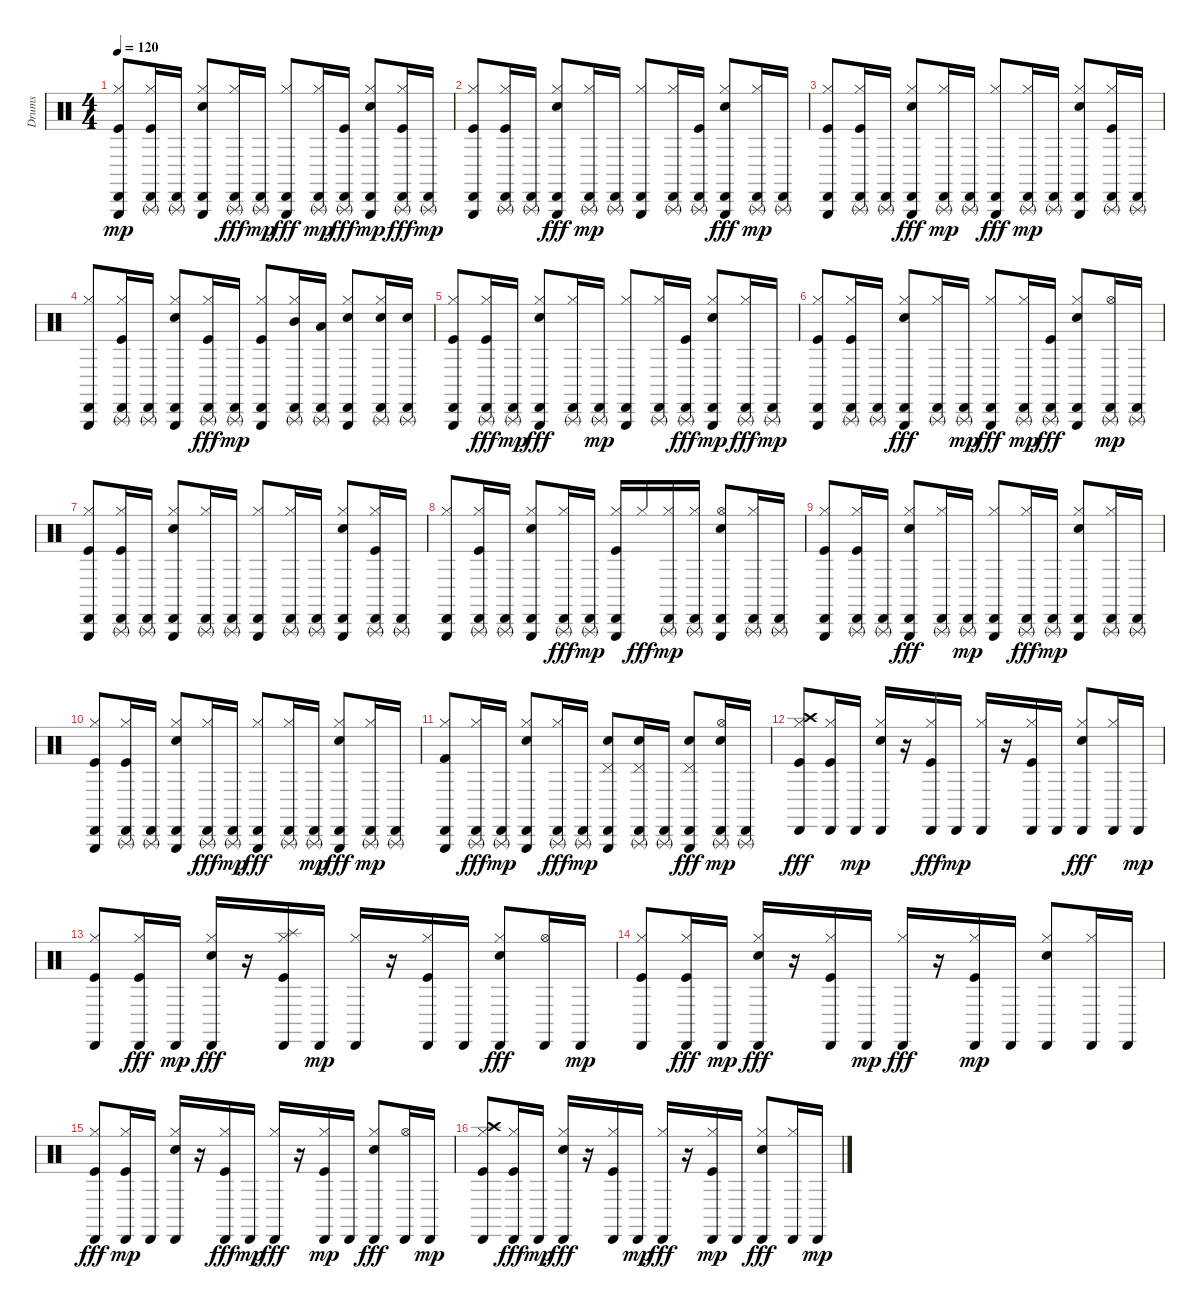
\track ("Drums" "Drums") {instrument percussion}
\staff {score}
\articulation defaults
\ts (4 4)
\tempo 120
\clef neutral
\ks c
("Kick (hit)" "Cabasa (hit)" "Hi-Hat (closed)" "Triangle (hit)").8{dy mp} ("Hi-Hat (closed)" "Kick (hit)" "Cabasa (hit)" "Triangle (rnute)").16 ("Cabasa (hit)" "Triangle (rnute)").16 ("Hi-Hat (closed)" "Snare (hit) 2" "Cabasa (hit)" "Triangle (hit)").8 ("Triangle (rnute)" "Cabasa (hit)" "Hi-Hat (closed)").16{dy fff} ("Cabasa (hit)" "Triangle (rnute)").16{dy mp} ("Triangle (hit)" "Cabasa (hit)" "Hi-Hat (closed)").8{dy fff} ("Hi-Hat (closed)" "Cabasa (hit)" "Triangle (rnute)").16{dy mp} ("Cabasa (hit)" "Triangle (rnute)" "Kick (hit)").16{dy fff} ("Hi-Hat (closed)" "Snare (hit) 2" "Triangle (hit)" "Cabasa (hit)").8{dy mp} ("Cabasa (hit)" "Kick (hit)" "Triangle (rnute)" "Hi-Hat (closed)").16{dy fff} ("Cabasa (hit)" "Triangle (rnute)").16{dy mp} |
("Cabasa (hit)" "Kick (hit)" "Hi-Hat (closed)" "Triangle (hit)").8 ("Hi-Hat (closed)" "Kick (hit)" "Cabasa (hit)" "Triangle (rnute)").16 ("Triangle (rnute)" "Cabasa (hit)").16 ("Cabasa (hit)" "Snare (hit) 2" "Triangle (hit)" "Hi-Hat (closed)").8{dy fff} ("Hi-Hat (closed)" "Cabasa (hit)" "Triangle (rnute)").16{dy mp} ("Triangle (rnute)" "Cabasa (hit)").16 ("Triangle (hit)" "Hi-Hat (closed)" "Cabasa (hit)").8 ("Hi-Hat (closed)" "Cabasa (hit)" "Triangle (rnute)").16 ("Kick (hit)" "Cabasa (hit)" "Triangle (rnute)").16 ("Snare (hit) 2" "Triangle (hit)" "Cabasa (hit)" "Hi-Hat (closed)").8{dy fff} ("Hi-Hat (closed)" "Triangle (rnute)" "Cabasa (hit)").16{dy mp} ("Cabasa (hit)" "Triangle (rnute)").16 |
("Cabasa (hit)" "Kick (hit)" "Hi-Hat (closed)" "Triangle (hit)").8 ("Hi-Hat (closed)" "Cabasa (hit)" "Kick (hit)" "Triangle (rnute)").16 ("Triangle (rnute)" "Cabasa (hit)").16 ("Snare (hit) 2" "Cabasa (hit)" "Triangle (hit)" "Hi-Hat (closed)").8{dy fff} ("Hi-Hat (closed)" "Cabasa (hit)" "Triangle (rnute)").16{dy mp} ("Triangle (rnute)" "Cabasa (hit)").16 ("Triangle (hit)" "Cabasa (hit)" "Hi-Hat (closed)").8{dy fff} ("Cabasa (hit)" "Hi-Hat (closed)" "Triangle (rnute)").16{dy mp} ("Triangle (rnute)" "Cabasa (hit)").16 ("Snare (hit) 2" "Hi-Hat (closed)" "Triangle (hit)" "Cabasa (hit)").8 ("Kick (hit)" "Hi-Hat (closed)" "Triangle (rnute)" "Cabasa (hit)").16 ("Cabasa (hit)" "Triangle (rnute)").16 |
("Hi-Hat (closed)" "Cabasa (hit)" "Triangle (hit)").8 ("Kick (hit)" "Cabasa (hit)" "Hi-Hat (closed)" "Triangle (rnute)").16 ("Cabasa (hit)" "Triangle (rnute)").16 ("Cabasa (hit)" "Hi-Hat (closed)" "Snare (hit) 2" "Triangle (hit)").8 ("Triangle (rnute)" "Cabasa (hit)" "Hi-Hat (closed)" "Kick (hit)").16{dy fff} ("Triangle (rnute)" "Cabasa (hit)").16{dy mp} ("Cabasa (hit)" "Hi-Hat (closed)" "Kick (hit)" "Triangle (hit)").8 ("Hi-Hat (closed)" "Mid Tom (hit)" "Cabasa (hit)" "Triangle (rnute)").16 ("Low Tom (hit)" "Triangle (rnute)" "Cabasa (hit)").16 ("Snare (hit) 2" "Hi-Hat (closed)" "Triangle (hit)" "Cabasa (hit)").8 ("Triangle (rnute)" "Hi-Hat (closed)" "Cabasa (hit)" "Snare (hit) 2").16 ("Cabasa (hit)" "Triangle (rnute)" "Snare (hit) 2").16 |
("Hi-Hat (closed)" "Kick (hit)" "Cabasa (hit)" "Triangle (hit)").8 ("Cabasa (hit)" "Kick (hit)" "Triangle (rnute)" "Hi-Hat (closed)").16{dy fff} ("Cabasa (hit)" "Triangle (rnute)").16{dy mp} ("Snare (hit) 2" "Triangle (hit)" "Cabasa (hit)" "Hi-Hat (closed)").8{dy fff} ("Cabasa (hit)" "Triangle (rnute)" "Hi-Hat (closed)").16 ("Triangle (rnute)" "Cabasa (hit)").16{dy mp} ("Hi-Hat (closed)" "Triangle (hit)" "Cabasa (hit)").8 ("Cabasa (hit)" "Hi-Hat (closed)" "Triangle (rnute)").16 ("Cabasa (hit)" "Triangle (rnute)" "Kick (hit)").16{dy fff} ("Cabasa (hit)" "Hi-Hat (closed)" "Triangle (hit)" "Snare (hit) 2").8{dy mp} ("Triangle (rnute)" "Cabasa (hit)" "Hi-Hat (closed)").16{dy fff} ("Triangle (rnute)" "Cabasa (hit)").16{dy mp} |
("Cabasa (hit)" "Hi-Hat (closed)" "Kick (hit)" "Triangle (hit)").8 ("Kick (hit)" "Hi-Hat (closed)" "Cabasa (hit)" "Triangle (rnute)").16 ("Cabasa (hit)" "Triangle (rnute)").16 ("Triangle (hit)" "Cabasa (hit)" "Hi-Hat (closed)" "Snare (hit) 2").8{dy fff} ("Cabasa (hit)" "Triangle (rnute)" "Hi-Hat (closed)").16 ("Triangle (rnute)" "Cabasa (hit)").16{dy mp} ("Cabasa (hit)" "Triangle (hit)" "Hi-Hat (closed)").8{dy fff} ("Hi-Hat (closed)" "Cabasa (hit)" "Triangle (rnute)").16{dy mp} ("Cabasa (hit)" "Triangle (rnute)" "Kick (hit)").16{dy fff} ("Cabasa (hit)" "Snare (hit) 2" "Triangle (hit)" "Hi-Hat (closed)").8 ("Triangle (rnute)" "Hi-Hat (open)" "Cabasa (hit)").16{dy mp} ("Triangle (rnute)" "Cabasa (hit)").16 |
("Kick (hit)" "Cabasa (hit)" "Hi-Hat (closed)" "Triangle (hit)").8 ("Hi-Hat (closed)" "Kick (hit)" "Cabasa (hit)" "Triangle (rnute)").16 ("Triangle (rnute)" "Cabasa (hit)").16 ("Hi-Hat (closed)" "Snare (hit) 2" "Triangle (hit)" "Cabasa (hit)").8 ("Triangle (rnute)" "Hi-Hat (closed)" "Cabasa (hit)").16 ("Triangle (rnute)" "Cabasa (hit)").16 ("Triangle (hit)" "Hi-Hat (closed)" "Cabasa (hit)").8 ("Hi-Hat (closed)" "Cabasa (hit)" "Triangle (rnute)").16 ("Triangle (rnute)" "Cabasa (hit)").16 ("Snare (hit) 2" "Cabasa (hit)" "Hi-Hat (closed)" "Triangle (hit)").8 ("Cabasa (hit)" "Kick (hit)" "Hi-Hat (closed)" "Triangle (rnute)").16 ("Triangle (rnute)" "Cabasa (hit)").16 |
("Hi-Hat (closed)" "Cabasa (hit)" "Triangle (hit)").8 ("Hi-Hat (closed)" "Kick (hit)" "Cabasa (hit)" "Triangle (rnute)").16 ("Cabasa (hit)" "Triangle (rnute)").16 ("Hi-Hat (closed)" "Cabasa (hit)" "Snare (hit) 2" "Triangle (hit)").8 ("Triangle (rnute)" "Cabasa (hit)" "Hi-Hat (closed)").16{dy fff} ("Cabasa (hit)" "Triangle (rnute)").16{dy mp} ("Triangle (hit)" "Kick (hit)" "Hi-Hat (closed)" "Cabasa (hit)").16 "Hi-Hat (closed)".16{dy fff} ("Hi-Hat (closed)" "Cabasa (hit)" "Triangle (rnute)").16{dy mp} ("Cabasa (hit)" "Hi-Hat (closed)" "Triangle (rnute)").16 ("Hi-Hat (open)" "Snare (hit) 2" "Cabasa (hit)" "Triangle (hit)").8 ("Triangle (rnute)" "Hi-Hat (closed)" "Cabasa (hit)").16 ("Cabasa (hit)" "Triangle (rnute)").16 |
("Cabasa (hit)" "Hi-Hat (closed)" "Kick (hit)" "Triangle (hit)").8 ("Kick (hit)" "Hi-Hat (closed)" "Cabasa (hit)" "Triangle (rnute)").16 ("Triangle (rnute)" "Cabasa (hit)").16 ("Cabasa (hit)" "Snare (hit) 2" "Triangle (hit)" "Hi-Hat (closed)").8{dy fff} ("Triangle (rnute)" "Cabasa (hit)" "Hi-Hat (closed)").16 ("Triangle (rnute)" "Cabasa (hit)").16{dy mp} ("Hi-Hat (closed)" "Triangle (hit)" "Cabasa (hit)").8 ("Triangle (rnute)" "Cabasa (hit)" "Hi-Hat (closed)").16{dy fff} ("Triangle (rnute)" "Cabasa (hit)").16{dy mp} ("Hi-Hat (closed)" "Triangle (hit)" "Cabasa (hit)" "Snare (hit) 2").8 ("Cabasa (hit)" "Hi-Hat (closed)" "Triangle (rnute)").16 ("Cabasa (hit)" "Triangle (rnute)").16 |
("Hi-Hat (closed)" "Cabasa (hit)" "Kick (hit)" "Triangle (hit)").8 ("Hi-Hat (closed)" "Kick (hit)" "Cabasa (hit)" "Triangle (rnute)").16 ("Cabasa (hit)" "Triangle (rnute)").16 ("Cabasa (hit)" "Hi-Hat (closed)" "Snare (hit) 2" "Triangle (hit)").8 ("Triangle (rnute)" "Cabasa (hit)" "Hi-Hat (closed)").16{dy fff} ("Cabasa (hit)" "Triangle (rnute)").16{dy mp} ("Triangle (hit)" "Cabasa (hit)" "Hi-Hat (closed)").8{dy fff} ("Triangle (rnute)" "Cabasa (hit)" "Hi-Hat (closed)").16 ("Triangle (rnute)" "Cabasa (hit)").16{dy mp} ("Snare (hit) 2" "Triangle (hit)" "Cabasa (hit)" "Hi-Hat (closed)").8{dy fff} ("Cabasa (hit)" "Hi-Hat (closed)" "Triangle (rnute)").16{dy mp} ("Cabasa (hit)" "Triangle (rnute)").16 |
("Hi-Hat (closed)" "Kick (hit) 2" "Cabasa (hit)" "Triangle (hit)").8 ("Cabasa (hit)" "Triangle (rnute)" "Hi-Hat (closed)").16{dy fff} ("Triangle (rnute)" "Cabasa (hit)").16{dy mp} ("Hi-Hat (closed)" "Triangle (hit)" "Snare (hit) 2" "Cabasa (hit)").8 ("Cabasa (hit)" "Triangle (rnute)" "Hi-Hat (closed)").16{dy fff} ("Triangle (rnute)" "Cabasa (hit)").16{dy mp} ("Cabasa (hit)" "Snare (hit) 2" "Triangle (hit)" "Pedal Hi-Hat (hit)").8 ("Triangle (rnute)" "Pedal Hi-Hat (hit)" "Cabasa (hit)" "Snare (hit) 2").16 ("Cabasa (hit)" "Triangle (rnute)").16 ("Snare (hit) 2" "Cabasa (hit)" "Triangle (hit)" "Pedal Hi-Hat (hit)").8{dy fff} ("Hi-Hat (open)" "Triangle (rnute)" "Snare (hit) 2" "Cabasa (hit)").16{dy mp} ("Triangle (rnute)" "Cabasa (hit)").16 |
("Kick (hit)" "Cabasa (hit)" "Crash high (hit)" "Hi-Hat (closed)").8{dy fff} ("Cabasa (hit)" "Kick (hit)" "Hi-Hat (closed)").16 "Cabasa (hit)".16{dy mp} ("Snare (hit) 2" "Hi-Hat (closed)" "Cabasa (hit)").16 r.16 ("Cabasa (hit)" "Kick (hit)" "Hi-Hat (closed)").16{dy fff} "Cabasa (hit)".16{dy mp} ("Hi-Hat (closed)" "Cabasa (hit)").16 r.16 ("Kick (hit)" "Hi-Hat (closed)" "Cabasa (hit)").16 "Cabasa (hit)".16 ("Cabasa (hit)" "Snare (hit) 2" "Hi-Hat (closed)").8{dy fff} ("Cabasa (hit)" "Hi-Hat (closed)").16 "Cabasa (hit)".16{dy mp} |
("Kick (hit)" "Hi-Hat (closed)" "Cabasa (hit)").8 ("Kick (hit)" "Cabasa (hit)" "Hi-Hat (closed)").16{dy fff} "Cabasa (hit)".16{dy mp} ("Cabasa (hit)" "Snare (hit) 2" "Hi-Hat (closed)").16{dy fff} r.16 ("Kick (hit)" "Cabasa (hit)" "Splash (hit)" "Hi-Hat (closed)").16 "Cabasa (hit)".16{dy mp} ("Hi-Hat (closed)" "Cabasa (hit)").16 r.16 ("Hi-Hat (closed)" "Kick (hit)" "Cabasa (hit)").16 "Cabasa (hit)".16 ("Cabasa (hit)" "Hi-Hat (closed)" "Snare (hit) 2").8{dy fff} ("Cabasa (hit)" "Hi-Hat (open)").16 "Cabasa (hit)".16{dy mp} |
("Kick (hit)" "Hi-Hat (closed)" "Cabasa (hit)").8 ("Cabasa (hit)" "Kick (hit)" "Hi-Hat (closed)").16{dy fff} "Cabasa (hit)".16{dy mp} ("Cabasa (hit)" "Hi-Hat (closed)" "Snare (hit) 2").16{dy fff} r.16 ("Hi-Hat (closed)" "Cabasa (hit)" "Kick (hit)").16 "Cabasa (hit)".16{dy mp} ("Cabasa (hit)" "Hi-Hat (closed)").16{dy fff} r.16 ("Kick (hit)" "Hi-Hat (closed)" "Cabasa (hit)").16{dy mp} "Cabasa (hit)".16 ("Hi-Hat (closed)" "Cabasa (hit)" "Snare (hit) 2").8 ("Hi-Hat (closed)" "Cabasa (hit)").16 "Cabasa (hit)".16 |
("Cabasa (hit)" "Kick (hit)" "Hi-Hat (closed)").8{dy fff} ("Hi-Hat (closed)" "Kick (hit)" "Cabasa (hit)").16{dy mp} "Cabasa (hit)".16 ("Snare (hit) 2" "Hi-Hat (closed)" "Cabasa (hit)").16 r.16 ("Cabasa (hit)" "Kick (hit)" "Hi-Hat (closed)").16{dy fff} "Cabasa (hit)".16{dy mp} ("Cabasa (hit)" "Hi-Hat (closed)").16{dy fff} r.16 ("Kick (hit)" "Hi-Hat (closed)" "Cabasa (hit)").16{dy mp} "Cabasa (hit)".16 ("Cabasa (hit)" "Hi-Hat (closed)" "Snare (hit) 2").8{dy fff} ("Cabasa (hit)" "Hi-Hat (open)").16 "Cabasa (hit)".16{dy mp} |
("Crash high (hit)" "Kick (hit)" "Hi-Hat (closed)" "Cabasa (hit)").8 ("Cabasa (hit)" "Hi-Hat (closed)" "Kick (hit)").16{dy fff} "Cabasa (hit)".16{dy mp} ("Cabasa (hit)" "Hi-Hat (closed)" "Snare (hit) 2").16{dy fff} r.16 ("Cabasa (hit)" "Hi-Hat (closed)" "Kick (hit)").16 "Cabasa (hit)".16{dy mp} ("Cabasa (hit)" "Hi-Hat (closed)").16{dy fff} r.16 ("Kick (hit)" "Hi-Hat (closed)" "Cabasa (hit)").16{dy mp} "Cabasa (hit)".16 ("Cabasa (hit)" "Hi-Hat (closed)" "Snare (hit) 2").8{dy fff} ("Cabasa (hit)" "Hi-Hat (closed)").16 "Cabasa (hit)".16{dy mp}
